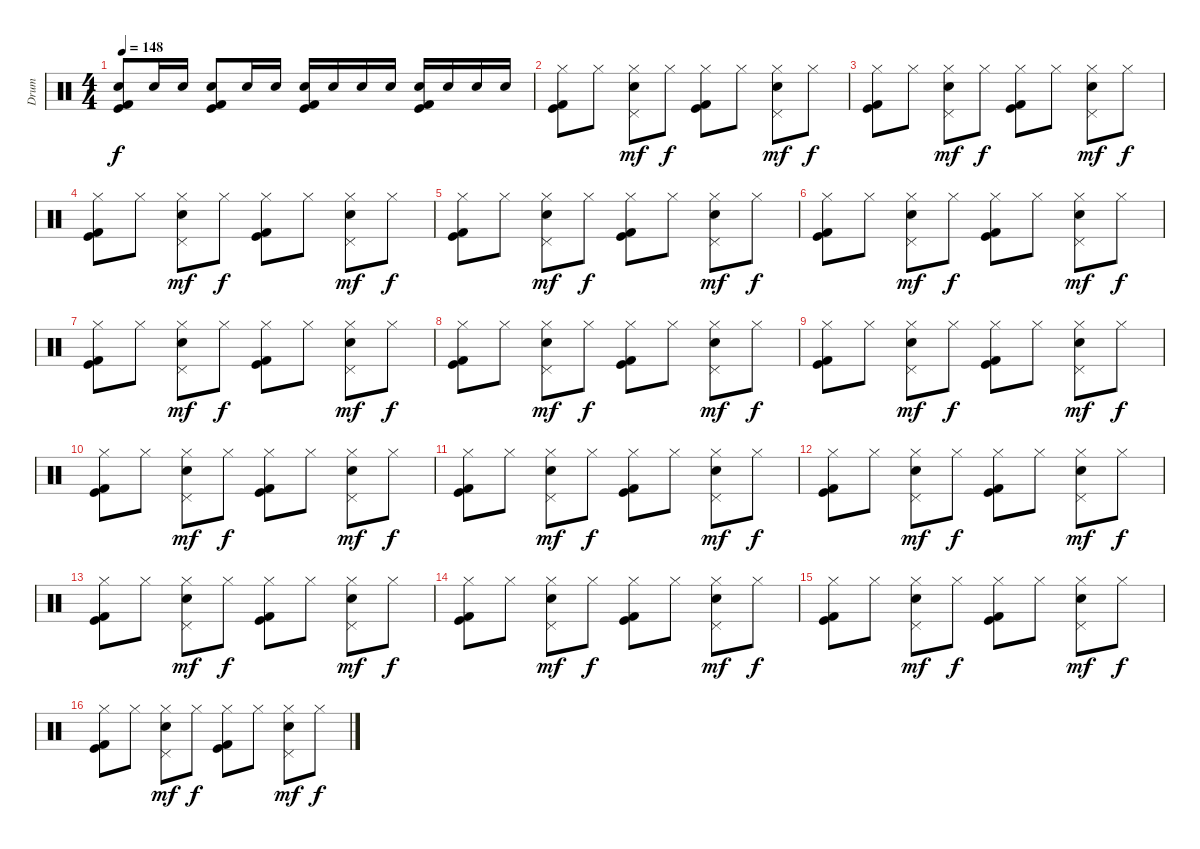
\track ("Drum" "Drum") {instrument percussion}
\staff {score}
\articulation defaults
\ts (4 4)
\tempo 148
\clef neutral
\ks c
("Electric Snare (hit)" "Kick (hit)" "Kick (hit) 2").8{dy f} "Electric Snare (hit)".16 "Electric Snare (hit)".16 ("Electric Snare (hit)" "Kick (hit)" "Kick (hit) 2").8 "Electric Snare (hit)".16 "Electric Snare (hit)".16 ("Electric Snare (hit)" "Kick (hit)" "Kick (hit) 2").16 "Electric Snare (hit)".16 "Electric Snare (hit)".16 "Electric Snare (hit)".16 ("Electric Snare (hit)" "Kick (hit)" "Kick (hit) 2").16 "Electric Snare (hit)".16 "Electric Snare (hit)".16 "Electric Snare (hit)".16 |
("Hi-Hat (closed)" "Kick (hit)" "Kick (hit) 2").8 "Hi-Hat (closed)".8 ("Pedal Hi-Hat (hit)" "Hi-Hat (closed)" "Snare (hit) 2").8{dy mf} "Hi-Hat (closed)".8{dy f} ("Hi-Hat (closed)" "Kick (hit)" "Kick (hit) 2").8 "Hi-Hat (closed)".8 ("Pedal Hi-Hat (hit)" "Hi-Hat (closed)" "Snare (hit) 2").8{dy mf} "Hi-Hat (closed)".8{dy f} |
("Hi-Hat (closed)" "Kick (hit)" "Kick (hit) 2").8 "Hi-Hat (closed)".8 ("Pedal Hi-Hat (hit)" "Hi-Hat (closed)" "Snare (hit) 2").8{dy mf} "Hi-Hat (closed)".8{dy f} ("Hi-Hat (closed)" "Kick (hit)" "Kick (hit) 2").8 "Hi-Hat (closed)".8 ("Pedal Hi-Hat (hit)" "Hi-Hat (closed)" "Snare (hit) 2").8{dy mf} "Hi-Hat (closed)".8{dy f} |
("Hi-Hat (closed)" "Kick (hit)" "Kick (hit) 2").8 "Hi-Hat (closed)".8 ("Pedal Hi-Hat (hit)" "Hi-Hat (closed)" "Snare (hit) 2").8{dy mf} "Hi-Hat (closed)".8{dy f} ("Hi-Hat (closed)" "Kick (hit)" "Kick (hit) 2").8 "Hi-Hat (closed)".8 ("Pedal Hi-Hat (hit)" "Hi-Hat (closed)" "Snare (hit) 2").8{dy mf} "Hi-Hat (closed)".8{dy f} |
("Hi-Hat (closed)" "Kick (hit)" "Kick (hit) 2").8 "Hi-Hat (closed)".8 ("Pedal Hi-Hat (hit)" "Hi-Hat (closed)" "Snare (hit) 2").8{dy mf} "Hi-Hat (closed)".8{dy f} ("Hi-Hat (closed)" "Kick (hit)" "Kick (hit) 2").8 "Hi-Hat (closed)".8 ("Pedal Hi-Hat (hit)" "Hi-Hat (closed)" "Snare (hit) 2").8{dy mf} "Hi-Hat (closed)".8{dy f} |
("Hi-Hat (closed)" "Kick (hit)" "Kick (hit) 2").8 "Hi-Hat (closed)".8 ("Pedal Hi-Hat (hit)" "Hi-Hat (closed)" "Snare (hit) 2").8{dy mf} "Hi-Hat (closed)".8{dy f} ("Hi-Hat (closed)" "Kick (hit)" "Kick (hit) 2").8 "Hi-Hat (closed)".8 ("Pedal Hi-Hat (hit)" "Hi-Hat (closed)" "Snare (hit) 2").8{dy mf} "Hi-Hat (closed)".8{dy f} |
("Hi-Hat (closed)" "Kick (hit)" "Kick (hit) 2").8 "Hi-Hat (closed)".8 ("Pedal Hi-Hat (hit)" "Hi-Hat (closed)" "Snare (hit) 2").8{dy mf} "Hi-Hat (closed)".8{dy f} ("Hi-Hat (closed)" "Kick (hit)" "Kick (hit) 2").8 "Hi-Hat (closed)".8 ("Pedal Hi-Hat (hit)" "Hi-Hat (closed)" "Snare (hit) 2").8{dy mf} "Hi-Hat (closed)".8{dy f} |
("Hi-Hat (closed)" "Kick (hit)" "Kick (hit) 2").8 "Hi-Hat (closed)".8 ("Pedal Hi-Hat (hit)" "Hi-Hat (closed)" "Snare (hit) 2").8{dy mf} "Hi-Hat (closed)".8{dy f} ("Hi-Hat (closed)" "Kick (hit)" "Kick (hit) 2").8 "Hi-Hat (closed)".8 ("Pedal Hi-Hat (hit)" "Hi-Hat (closed)" "Snare (hit) 2").8{dy mf} "Hi-Hat (closed)".8{dy f} |
("Hi-Hat (closed)" "Kick (hit)" "Kick (hit) 2").8 "Hi-Hat (closed)".8 ("Pedal Hi-Hat (hit)" "Hi-Hat (closed)" "Snare (hit) 2").8{dy mf} "Hi-Hat (closed)".8{dy f} ("Hi-Hat (closed)" "Kick (hit)" "Kick (hit) 2").8 "Hi-Hat (closed)".8 ("Pedal Hi-Hat (hit)" "Hi-Hat (closed)" "Snare (hit) 2").8{dy mf} "Hi-Hat (closed)".8{dy f} |
("Hi-Hat (closed)" "Kick (hit)" "Kick (hit) 2").8 "Hi-Hat (closed)".8 ("Pedal Hi-Hat (hit)" "Hi-Hat (closed)" "Snare (hit) 2").8{dy mf} "Hi-Hat (closed)".8{dy f} ("Hi-Hat (closed)" "Kick (hit)" "Kick (hit) 2").8 "Hi-Hat (closed)".8 ("Pedal Hi-Hat (hit)" "Hi-Hat (closed)" "Snare (hit) 2").8{dy mf} "Hi-Hat (closed)".8{dy f} |
("Hi-Hat (closed)" "Kick (hit)" "Kick (hit) 2").8 "Hi-Hat (closed)".8 ("Pedal Hi-Hat (hit)" "Hi-Hat (closed)" "Snare (hit) 2").8{dy mf} "Hi-Hat (closed)".8{dy f} ("Hi-Hat (closed)" "Kick (hit)" "Kick (hit) 2").8 "Hi-Hat (closed)".8 ("Pedal Hi-Hat (hit)" "Hi-Hat (closed)" "Snare (hit) 2").8{dy mf} "Hi-Hat (closed)".8{dy f} |
("Hi-Hat (closed)" "Kick (hit)" "Kick (hit) 2").8 "Hi-Hat (closed)".8 ("Pedal Hi-Hat (hit)" "Hi-Hat (closed)" "Snare (hit) 2").8{dy mf} "Hi-Hat (closed)".8{dy f} ("Hi-Hat (closed)" "Kick (hit)" "Kick (hit) 2").8 "Hi-Hat (closed)".8 ("Pedal Hi-Hat (hit)" "Hi-Hat (closed)" "Snare (hit) 2").8{dy mf} "Hi-Hat (closed)".8{dy f} |
("Hi-Hat (closed)" "Kick (hit)" "Kick (hit) 2").8 "Hi-Hat (closed)".8 ("Pedal Hi-Hat (hit)" "Hi-Hat (closed)" "Snare (hit) 2").8{dy mf} "Hi-Hat (closed)".8{dy f} ("Hi-Hat (closed)" "Kick (hit)" "Kick (hit) 2").8 "Hi-Hat (closed)".8 ("Pedal Hi-Hat (hit)" "Hi-Hat (closed)" "Snare (hit) 2").8{dy mf} "Hi-Hat (closed)".8{dy f} |
("Hi-Hat (closed)" "Kick (hit)" "Kick (hit) 2").8 "Hi-Hat (closed)".8 ("Pedal Hi-Hat (hit)" "Hi-Hat (closed)" "Snare (hit) 2").8{dy mf} "Hi-Hat (closed)".8{dy f} ("Hi-Hat (closed)" "Kick (hit)" "Kick (hit) 2").8 "Hi-Hat (closed)".8 ("Pedal Hi-Hat (hit)" "Hi-Hat (closed)" "Snare (hit) 2").8{dy mf} "Hi-Hat (closed)".8{dy f} |
("Hi-Hat (closed)" "Kick (hit)" "Kick (hit) 2").8 "Hi-Hat (closed)".8 ("Pedal Hi-Hat (hit)" "Hi-Hat (closed)" "Snare (hit) 2").8{dy mf} "Hi-Hat (closed)".8{dy f} ("Hi-Hat (closed)" "Kick (hit)" "Kick (hit) 2").8 "Hi-Hat (closed)".8 ("Pedal Hi-Hat (hit)" "Hi-Hat (closed)" "Snare (hit) 2").8{dy mf} "Hi-Hat (closed)".8{dy f} |
("Hi-Hat (closed)" "Kick (hit)" "Kick (hit) 2").8 "Hi-Hat (closed)".8 ("Pedal Hi-Hat (hit)" "Hi-Hat (closed)" "Snare (hit) 2").8{dy mf} "Hi-Hat (closed)".8{dy f} ("Hi-Hat (closed)" "Kick (hit)" "Kick (hit) 2").8 "Hi-Hat (closed)".8 ("Pedal Hi-Hat (hit)" "Hi-Hat (closed)" "Snare (hit) 2").8{dy mf} "Hi-Hat (closed)".8{dy f}
